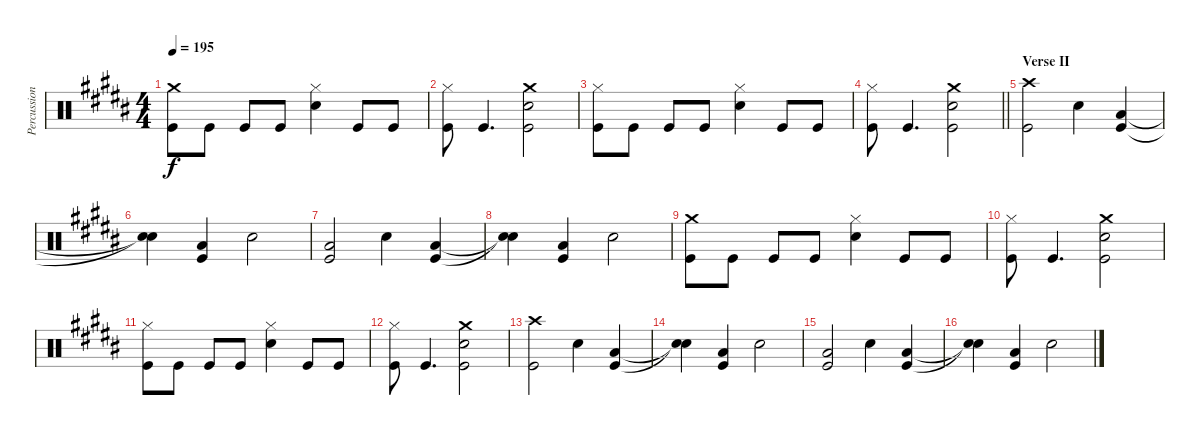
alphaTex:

\track ("Percussion" "Percussion") {instrument percussion}
\staff {score}
\articulation defaults
\ts (4 4)
\tempo 195
\clef neutral
\ks b
("Crash medium (hit)" "Kick (hit)").8{dy f} "Kick (hit)".8 "Kick (hit)".8 "Kick (hit)".8 ("Hi-Hat (closed)" "Electric Snare (hit)").4 "Kick (hit)".8 "Kick (hit)".8 |
("Hi-Hat (closed)" "Kick (hit)").8 "Kick (hit)".4{d} ("Crash medium (hit)" "Electric Snare (hit)" "Kick (hit)").2 |
("Hi-Hat (closed)" "Kick (hit)").8 "Kick (hit)".8 "Kick (hit)".8 "Kick (hit)".8 ("Hi-Hat (closed)" "Electric Snare (hit)").4 "Kick (hit)".8 "Kick (hit)".8 |
\barLineRight lightlight
("Hi-Hat (closed)" "Kick (hit)").8 "Kick (hit)".4{d} ("Crash medium (hit)" "Electric Snare (hit)" "Kick (hit)").2 |
\section ("" "Verse II")
("Crash high (hit)" "Kick (hit)").2 "Electric Snare (hit)".4 ("Low Floor Tom (hit)" "Kick (hit)").4 |
("Snare (hit)"{t} "Snare (hit)"{t}).4 ("Low Floor Tom (hit)" "Kick (hit)").4 "Electric Snare (hit)".2 |
("Low Floor Tom (hit)" "Kick (hit)").2 "Electric Snare (hit)".4 ("Low Floor Tom (hit)" "Kick (hit)").4 |
("Snare (hit)"{t} "Snare (hit)"{t}).4 ("Low Floor Tom (hit)" "Kick (hit)").4 "Electric Snare (hit)".2 |
("Crash medium (hit)" "Kick (hit)").8 "Kick (hit)".8 "Kick (hit)".8 "Kick (hit)".8 ("Hi-Hat (closed)" "Electric Snare (hit)").4 "Kick (hit)".8 "Kick (hit)".8 |
("Hi-Hat (closed)" "Kick (hit)").8 "Kick (hit)".4{d} ("Crash medium (hit)" "Electric Snare (hit)" "Kick (hit)").2 |
("Hi-Hat (closed)" "Kick (hit)").8 "Kick (hit)".8 "Kick (hit)".8 "Kick (hit)".8 ("Hi-Hat (closed)" "Electric Snare (hit)").4 "Kick (hit)".8 "Kick (hit)".8 |
("Hi-Hat (closed)" "Kick (hit)").8 "Kick (hit)".4{d} ("Crash medium (hit)" "Electric Snare (hit)" "Kick (hit)").2 |
("Crash high (hit)" "Kick (hit)").2 "Electric Snare (hit)".4 ("Low Floor Tom (hit)" "Kick (hit)").4 |
("Snare (hit)"{t} "Snare (hit)"{t}).4 ("Low Floor Tom (hit)" "Kick (hit)").4 "Electric Snare (hit)".2 |
("Low Floor Tom (hit)" "Kick (hit)").2 "Electric Snare (hit)".4 ("Low Floor Tom (hit)" "Kick (hit)").4 |
("Snare (hit)"{t} "Snare (hit)"{t}).4 ("Low Floor Tom (hit)" "Kick (hit)").4 "Electric Snare (hit)".2
